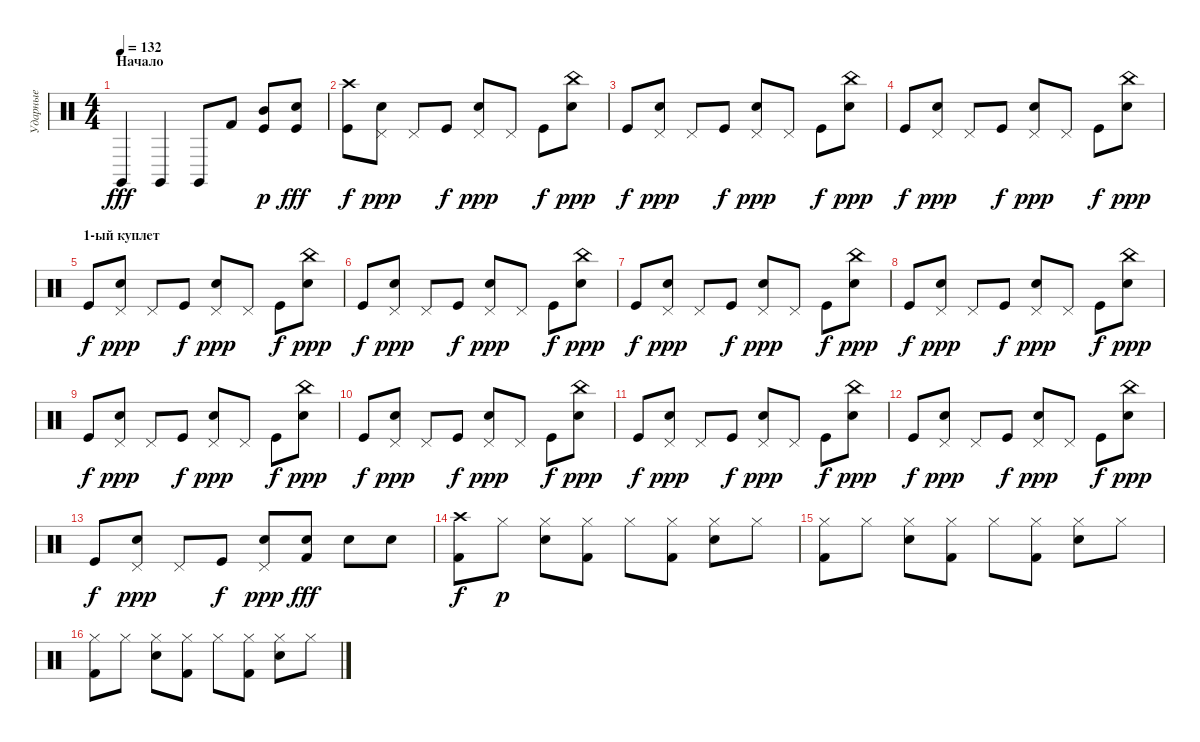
\track ("Ударные" "Ударные") {instrument percussion}
\staff {score}
\articulation defaults
\ts (4 4)
\section ("" "Начало")
\tempo 132
\clef neutral
\ks c "Claves (hit)".4{dy fff} "Claves (hit)".4 "Claves (hit)".8 "Kick (hit) 2".8
("Kick (hit)" "Mid Tom (hit)").8{dy p} ("Electric Snare (hit)" "Kick (hit)").8{dy fff} |
("Crash high (hit)" "Kick (hit)").8{dy f} ("Pedal Hi-Hat (hit)" "Electric Snare (hit)").8{dy ppp} "Pedal Hi-Hat (hit)".8 "Kick (hit)".8{dy f} ("Pedal Hi-Hat (hit)" "Electric Snare (hit)").8{dy ppp} "Pedal Hi-Hat (hit)".8 "Kick (hit)".8{dy f} ("China (hit)" "Electric Snare (hit)").8{dy ppp} |
"Kick (hit)".8{dy f} ("Pedal Hi-Hat (hit)" "Electric Snare (hit)").8{dy ppp} "Pedal Hi-Hat (hit)".8 "Kick (hit)".8{dy f} ("Pedal Hi-Hat (hit)" "Electric Snare (hit)").8{dy ppp} "Pedal Hi-Hat (hit)".8 "Kick (hit)".8{dy f} ("China (hit)" "Electric Snare (hit)").8{dy ppp} |
"Kick (hit)".8{dy f} ("Pedal Hi-Hat (hit)" "Electric Snare (hit)").8{dy ppp} "Pedal Hi-Hat (hit)".8 "Kick (hit)".8{dy f} ("Pedal Hi-Hat (hit)" "Electric Snare (hit)").8{dy ppp} "Pedal Hi-Hat (hit)".8 "Kick (hit)".8{dy f} ("China (hit)" "Electric Snare (hit)").8{dy ppp} |
\section ("" "1-ый куплет")
"Kick (hit)".8{dy f} ("Pedal Hi-Hat (hit)" "Electric Snare (hit)").8{dy ppp} "Pedal Hi-Hat (hit)".8 "Kick (hit)".8{dy f} ("Pedal Hi-Hat (hit)" "Electric Snare (hit)").8{dy ppp} "Pedal Hi-Hat (hit)".8 "Kick (hit)".8{dy f} ("China (hit)" "Electric Snare (hit)").8{dy ppp} |
"Kick (hit)".8{dy f} ("Pedal Hi-Hat (hit)" "Electric Snare (hit)").8{dy ppp} "Pedal Hi-Hat (hit)".8 "Kick (hit)".8{dy f} ("Pedal Hi-Hat (hit)" "Electric Snare (hit)").8{dy ppp} "Pedal Hi-Hat (hit)".8 "Kick (hit)".8{dy f} ("China (hit)" "Electric Snare (hit)").8{dy ppp} |
"Kick (hit)".8{dy f} ("Pedal Hi-Hat (hit)" "Electric Snare (hit)").8{dy ppp} "Pedal Hi-Hat (hit)".8 "Kick (hit)".8{dy f} ("Pedal Hi-Hat (hit)" "Electric Snare (hit)").8{dy ppp} "Pedal Hi-Hat (hit)".8 "Kick (hit)".8{dy f} ("China (hit)" "Electric Snare (hit)").8{dy ppp} |
"Kick (hit)".8{dy f} ("Pedal Hi-Hat (hit)" "Electric Snare (hit)").8{dy ppp} "Pedal Hi-Hat (hit)".8 "Kick (hit)".8{dy f} ("Pedal Hi-Hat (hit)" "Electric Snare (hit)").8{dy ppp} "Pedal Hi-Hat (hit)".8 "Kick (hit)".8{dy f} ("China (hit)" "Electric Snare (hit)").8{dy ppp} |
"Kick (hit)".8{dy f} ("Pedal Hi-Hat (hit)" "Electric Snare (hit)").8{dy ppp} "Pedal Hi-Hat (hit)".8 "Kick (hit)".8{dy f} ("Pedal Hi-Hat (hit)" "Electric Snare (hit)").8{dy ppp} "Pedal Hi-Hat (hit)".8 "Kick (hit)".8{dy f} ("China (hit)" "Electric Snare (hit)").8{dy ppp} |
"Kick (hit)".8{dy f} ("Pedal Hi-Hat (hit)" "Electric Snare (hit)").8{dy ppp} "Pedal Hi-Hat (hit)".8 "Kick (hit)".8{dy f} ("Pedal Hi-Hat (hit)" "Electric Snare (hit)").8{dy ppp} "Pedal Hi-Hat (hit)".8 "Kick (hit)".8{dy f} ("China (hit)" "Electric Snare (hit)").8{dy ppp} |
"Kick (hit)".8{dy f} ("Pedal Hi-Hat (hit)" "Electric Snare (hit)").8{dy ppp} "Pedal Hi-Hat (hit)".8 "Kick (hit)".8{dy f} ("Pedal Hi-Hat (hit)" "Electric Snare (hit)").8{dy ppp} "Pedal Hi-Hat (hit)".8 "Kick (hit)".8{dy f} ("China (hit)" "Electric Snare (hit)").8{dy ppp} |
"Kick (hit)".8{dy f} ("Pedal Hi-Hat (hit)" "Electric Snare (hit)").8{dy ppp} "Pedal Hi-Hat (hit)".8 "Kick (hit)".8{dy f} ("Pedal Hi-Hat (hit)" "Electric Snare (hit)").8{dy ppp} "Pedal Hi-Hat (hit)".8 "Kick (hit)".8{dy f} ("China (hit)" "Electric Snare (hit)").8{dy ppp} |
"Kick (hit)".8{dy f} ("Pedal Hi-Hat (hit)" "Electric Snare (hit)").8{dy ppp} "Pedal Hi-Hat (hit)".8 "Kick (hit)".8{dy f} ("Pedal Hi-Hat (hit)" "Electric Snare (hit)").8{dy ppp} ("Snare (hit) 2" "Kick (hit) 2").8{dy fff} "Snare (hit) 2".8 "Snare (hit) 2".8 |
("Crash high (hit)" "Kick (hit) 2").8{dy f} "Hi-Hat (closed)".8{dy p} ("Hi-Hat (closed)" "Snare (hit) 2").8 ("Hi-Hat (closed)" "Kick (hit) 2").8 "Hi-Hat (closed)".8 ("Hi-Hat (closed)" "Kick (hit) 2").8 ("Hi-Hat (closed)" "Snare (hit) 2").8 "Hi-Hat (closed)".8 |
("Hi-Hat (closed)" "Kick (hit) 2").8 "Hi-Hat (closed)".8 ("Hi-Hat (closed)" "Snare (hit) 2").8 ("Hi-Hat (closed)" "Kick (hit) 2").8 "Hi-Hat (closed)".8 ("Hi-Hat (closed)" "Kick (hit) 2").8 ("Hi-Hat (closed)" "Snare (hit) 2").8 "Hi-Hat (closed)".8 |
("Hi-Hat (closed)" "Kick (hit) 2").8 "Hi-Hat (closed)".8 ("Hi-Hat (closed)" "Snare (hit) 2").8 ("Hi-Hat (closed)" "Kick (hit) 2").8 "Hi-Hat (closed)".8 ("Hi-Hat (closed)" "Kick (hit) 2").8 ("Hi-Hat (closed)" "Snare (hit) 2").8 "Hi-Hat (closed)".8
